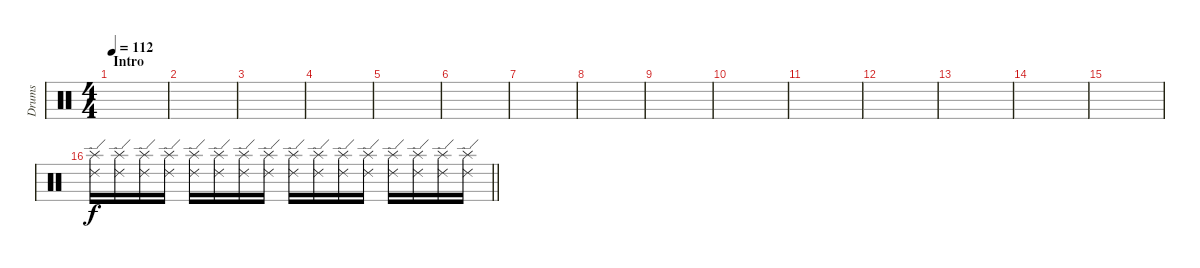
\track ("Drums" "Drums") {instrument percussion}
\staff {score}
\articulation defaults
\ts (4 4)
\section ("" "Intro")
\tempo 112
\clef neutral
\ks c
|
|
|
|
|
|
|
|
|
|
|
|
|
|
|
\barLineRight lightlight
("Ride (edge) 2" "Splash (hit)").16{volume 1} ("Ride (edge) 2" "Splash (hit)").16{volume 12} ("Ride (edge) 2" "Splash (hit)").16 ("Ride (edge) 2" "Splash (hit)").16 ("Ride (edge) 2" "Splash (hit)").16 ("Ride (edge) 2" "Splash (hit)").16 ("Ride (edge) 2" "Splash (hit)").16 ("Ride (edge) 2" "Splash (hit)").16 ("Ride (edge) 2" "Splash (hit)").16 ("Ride (edge) 2" "Splash (hit)").16 ("Ride (edge) 2" "Splash (hit)").16 ("Ride (edge) 2" "Splash (hit)").16 ("Ride (edge) 2" "Splash (hit)").16 ("Ride (edge) 2" "Splash (hit)").16 ("Ride (edge) 2" "Splash (hit)").16 ("Ride (edge) 2" "Splash (hit)").16
